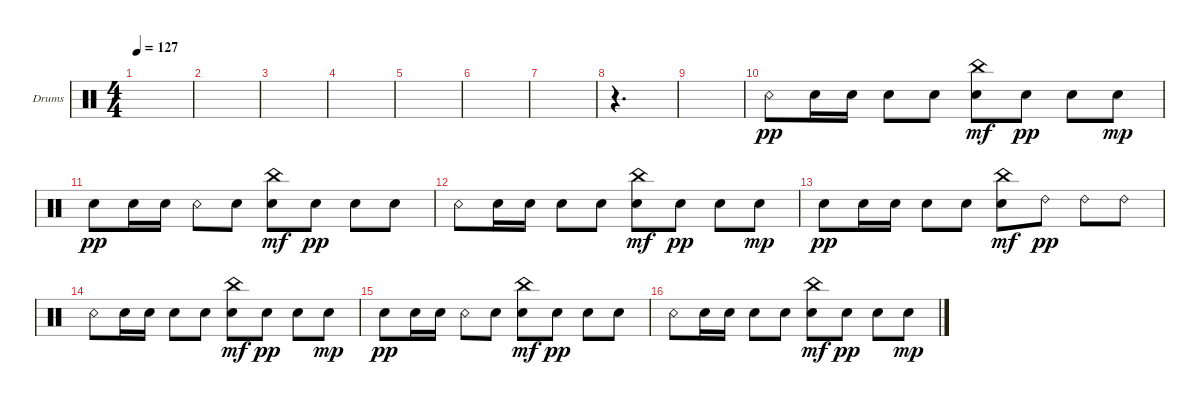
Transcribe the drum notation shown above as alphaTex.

\defaultSystemsLayout 4
\bracketExtendMode groupsimilarinstruments
\firstSystemTrackNameOrientation horizontal
\otherSystemsTrackNameOrientation horizontal
\track ("Drumkit" "Drums") {instrument percussion}
\staff {score}
\articulation defaults
\ts (4 4)
\tempo 127
\clef neutral
\ks c
|
|
|
|
|
|
|
r.4{d} |
|
"Snare (rim shot)".8{dy pp} "Snare (hit) 2".16 "Snare (hit) 2".16 "Snare (hit) 2".8 "Snare (hit) 2".8 ("Snare (hit) 2" "China (hit)").8{dy mf} "Snare (hit) 2".8{dy pp} "Snare (hit) 2".8 "Snare (hit) 2".8{dy mp} |
"Snare (hit) 2".8{dy pp} "Snare (hit) 2".16 "Snare (hit) 2".16 "Snare (rim shot)".8 "Snare (hit) 2".8 ("Snare (hit) 2" "China (hit)").8{dy mf} "Snare (hit) 2".8{dy pp} "Snare (hit) 2".8 "Snare (hit) 2".8 |
"Snare (rim shot)".8 "Snare (hit) 2".16 "Snare (hit) 2".16 "Snare (hit) 2".8 "Snare (hit) 2".8 ("Snare (hit) 2" "China (hit)").8{dy mf} "Snare (hit) 2".8{dy pp} "Snare (hit) 2".8 "Snare (hit) 2".8{dy mp} |
"Snare (hit) 2".8{dy pp} "Snare (hit) 2".16 "Snare (hit) 2".16 "Snare (hit) 2".8 "Snare (hit) 2".8 ("Snare (hit) 2" "China (hit)").8{dy mf} "Ride (bell) 2".8{dy pp} "Ride (bell) 2".8 "Ride (bell) 2".8 |
"Snare (rim shot)".8 "Snare (hit) 2".16 "Snare (hit) 2".16 "Snare (hit) 2".8 "Snare (hit) 2".8 ("Snare (hit) 2" "China (hit)").8{dy mf} "Snare (hit) 2".8{dy pp} "Snare (hit) 2".8 "Snare (hit) 2".8{dy mp} |
"Snare (hit) 2".8{dy pp} "Snare (hit) 2".16 "Snare (hit) 2".16 "Snare (rim shot)".8 "Snare (hit) 2".8 ("Snare (hit) 2" "China (hit)").8{dy mf} "Snare (hit) 2".8{dy pp} "Snare (hit) 2".8 "Snare (hit) 2".8 |
"Snare (rim shot)".8 "Snare (hit) 2".16 "Snare (hit) 2".16 "Snare (hit) 2".8 "Snare (hit) 2".8 ("Snare (hit) 2" "China (hit)").8{dy mf} "Snare (hit) 2".8{dy pp} "Snare (hit) 2".8 "Snare (hit) 2".8{dy mp}
